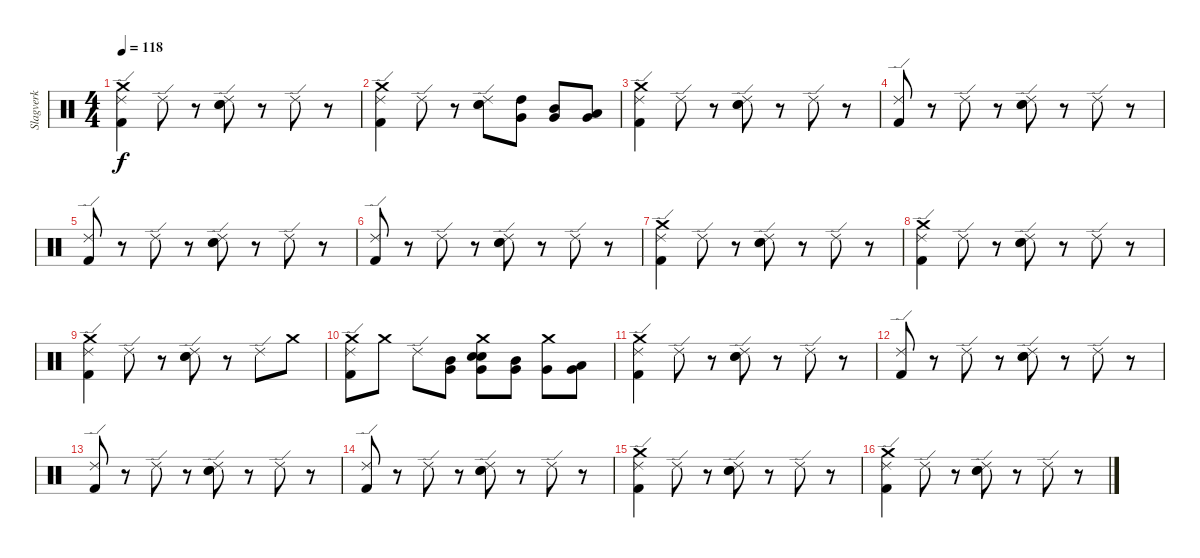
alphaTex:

\track ("Slagverk" "Slagverk") {instrument percussion}
\staff {score}
\articulation defaults
\ts (4 4)
\tempo 118
\clef neutral
\ks c
("Crash medium (hit)" "Kick (hit) 2" "Ride (edge) 2").4{dy f} "Ride (edge) 2".8 r.8 ("Electric Snare (hit)" "Snare (hit) 2" "Ride (edge) 2").8 r.8 "Ride (edge) 2".8 r.8 |
("Crash medium (hit)" "Kick (hit) 2" "Ride (edge) 2").4 "Ride (edge) 2".8 r.8 ("Electric Snare (hit)" "Snare (hit) 2" "Ride (edge) 2").8 ("Very Low Tom (hit)" "High Tom (hit)").8 ("Mid Tom (hit)" "Very Low Tom (hit)").8 ("Low Tom (hit)" "Very Low Tom (hit)").8 |
("Crash medium (hit)" "Kick (hit) 2" "Ride (edge) 2").4 "Ride (edge) 2".8 r.8 ("Electric Snare (hit)" "Snare (hit) 2" "Ride (edge) 2").8 r.8 "Ride (edge) 2".8 r.8 |
("Kick (hit) 2" "Ride (edge) 2").8 r.8 "Ride (edge) 2".8 r.8 ("Electric Snare (hit)" "Snare (hit) 2" "Ride (edge) 2").8 r.8 "Ride (edge) 2".8 r.8 |
("Kick (hit) 2" "Ride (edge) 2").8 r.8 "Ride (edge) 2".8 r.8 ("Electric Snare (hit)" "Snare (hit) 2" "Ride (edge) 2").8 r.8 "Ride (edge) 2".8 r.8 |
("Kick (hit) 2" "Ride (edge) 2").8 r.8 "Ride (edge) 2".8 r.8 ("Electric Snare (hit)" "Snare (hit) 2" "Ride (edge) 2").8 r.8 "Ride (edge) 2".8 r.8 |
("Crash medium (hit)" "Kick (hit) 2" "Ride (edge) 2").4 "Ride (edge) 2".8 r.8 ("Electric Snare (hit)" "Snare (hit) 2" "Ride (edge) 2").8 r.8 "Ride (edge) 2".8 r.8 |
("Crash medium (hit)" "Kick (hit) 2" "Ride (edge) 2").4 "Ride (edge) 2".8 r.8 ("Electric Snare (hit)" "Snare (hit) 2" "Ride (edge) 2").8 r.8 "Ride (edge) 2".8 r.8 |
("Crash medium (hit)" "Kick (hit) 2" "Ride (edge) 2").4 "Ride (edge) 2".8 r.8 ("Electric Snare (hit)" "Snare (hit) 2" "Ride (edge) 2").8 r.8 "Ride (edge) 2".8 "Crash medium (hit)".8 |
("Crash medium (hit)" "Kick (hit) 2" "Ride (edge) 2").8 "Crash medium (hit)".8 "Ride (edge) 2".8 ("Mid Tom (hit)" "Very Low Tom (hit)").8 ("Crash medium (hit)" "Very Low Tom (hit)" "Electric Snare (hit)" "Snare (hit) 2").8 ("Mid Tom (hit)" "Very Low Tom (hit)").8 ("Crash medium (hit)" "Very Low Tom (hit)").8 ("Low Tom (hit)" "Very Low Tom (hit)").8 |
("Crash medium (hit)" "Kick (hit) 2" "Ride (edge) 2").4 "Ride (edge) 2".8 r.8 ("Electric Snare (hit)" "Snare (hit) 2" "Ride (edge) 2").8 r.8 "Ride (edge) 2".8 r.8 |
("Kick (hit) 2" "Ride (edge) 2").8 r.8 "Ride (edge) 2".8 r.8 ("Electric Snare (hit)" "Snare (hit) 2" "Ride (edge) 2").8 r.8 "Ride (edge) 2".8 r.8 |
("Kick (hit) 2" "Ride (edge) 2").8 r.8 "Ride (edge) 2".8 r.8 ("Electric Snare (hit)" "Snare (hit) 2" "Ride (edge) 2").8 r.8 "Ride (edge) 2".8 r.8 |
("Kick (hit) 2" "Ride (edge) 2").8 r.8 "Ride (edge) 2".8 r.8 ("Electric Snare (hit)" "Snare (hit) 2" "Ride (edge) 2").8 r.8 "Ride (edge) 2".8 r.8 |
("Crash medium (hit)" "Kick (hit) 2" "Ride (edge) 2").4 "Ride (edge) 2".8 r.8 ("Electric Snare (hit)" "Snare (hit) 2" "Ride (edge) 2").8 r.8 "Ride (edge) 2".8 r.8 |
("Crash medium (hit)" "Kick (hit) 2" "Ride (edge) 2").4 "Ride (edge) 2".8 r.8 ("Electric Snare (hit)" "Snare (hit) 2" "Ride (edge) 2").8 r.8 "Ride (edge) 2".8 r.8
